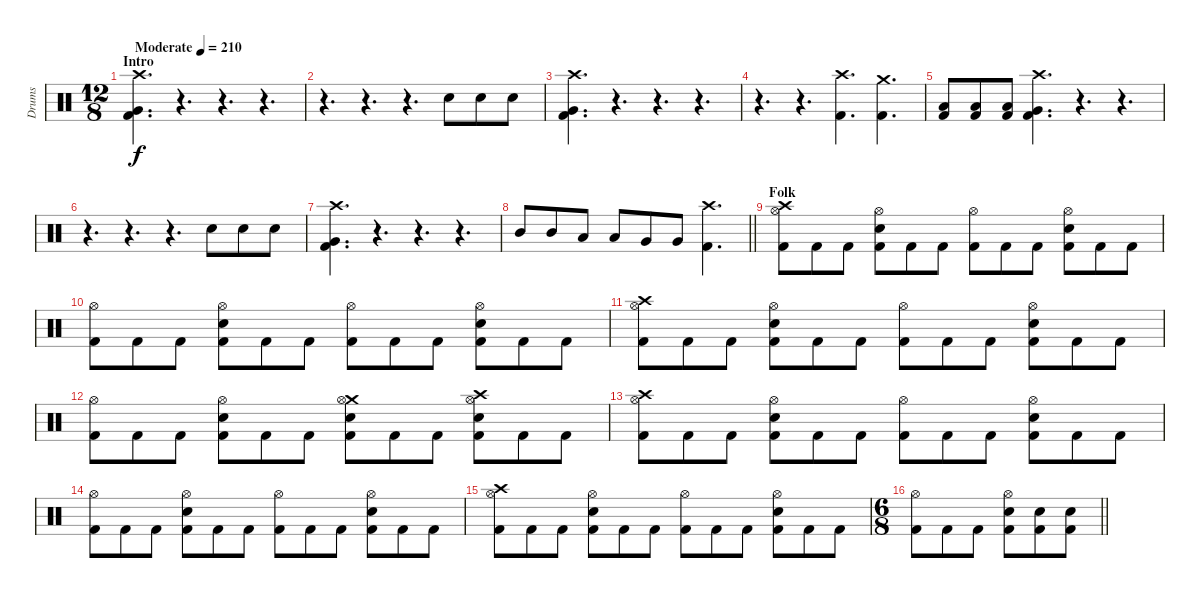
\track ("Drums" "Drums") {instrument percussion}
\staff {score}
\articulation defaults
\ts (12 8)
\section ("" "Intro")
\tempo (210 "Moderate")
\clef neutral
\ks c
("Crash high (hit)" "Very Low Tom (hit)" "Kick (hit) 2").4{d dy f} r.4{d} r.4{d} r.4{d} |
r.4{d} r.4{d} r.4{d} "Snare (hit) 2".8 "Snare (hit) 2".8 "Snare (hit) 2".8 |
("Crash high (hit)" "Very Low Tom (hit)" "Kick (hit) 2").4{d} r.4{d} r.4{d} r.4{d} |
r.4{d} r.4{d} ("Crash high (hit)" "Kick (hit) 2").4{d} ("Crash medium (hit)" "Kick (hit) 2").4{d} |
("Low Floor Tom (hit)" "Kick (hit) 2").8 ("Low Floor Tom (hit)" "Kick (hit) 2").8 ("Low Floor Tom (hit)" "Kick (hit) 2").8 ("Crash high (hit)" "Very Low Tom (hit)" "Kick (hit) 2").4{d} r.4{d} r.4{d} |
r.4{d} r.4{d} r.4{d} "Snare (hit) 2".8 "Snare (hit) 2".8 "Snare (hit) 2".8 |
("Crash high (hit)" "Very Low Tom (hit)" "Kick (hit) 2").4{d} r.4{d} r.4{d} r.4{d} |
\barLineRight lightlight "Mid Tom (hit)".8 "Mid Tom (hit)".8 "Low Tom (hit)".8 "Low Tom (hit)".8 "Very Low Tom (hit)".8 "Very Low Tom (hit)".8
("Crash high (hit)" "Kick (hit) 2").4{d} |
\section ("" "Folk")
("Crash high (hit)" "Hi-Hat (open)" "Kick (hit) 2").8 "Kick (hit) 2".8 "Kick (hit) 2".8 ("Hi-Hat (open)" "Snare (hit) 2" "Kick (hit) 2").8 "Kick (hit) 2".8 "Kick (hit) 2".8 ("Hi-Hat (open)" "Kick (hit) 2").8 "Kick (hit) 2".8 "Kick (hit) 2".8 ("Hi-Hat (open)" "Snare (hit) 2" "Kick (hit) 2").8 "Kick (hit) 2".8 "Kick (hit) 2".8 |
("Hi-Hat (open)" "Kick (hit) 2").8 "Kick (hit) 2".8 "Kick (hit) 2".8 ("Hi-Hat (open)" "Snare (hit) 2" "Kick (hit) 2").8 "Kick (hit) 2".8 "Kick (hit) 2".8 ("Hi-Hat (open)" "Kick (hit) 2").8 "Kick (hit) 2".8 "Kick (hit) 2".8 ("Hi-Hat (open)" "Snare (hit) 2" "Kick (hit) 2").8 "Kick (hit) 2".8 "Kick (hit) 2".8 |
("Crash high (hit)" "Hi-Hat (open)" "Kick (hit) 2").8 "Kick (hit) 2".8 "Kick (hit) 2".8 ("Hi-Hat (open)" "Snare (hit) 2" "Kick (hit) 2").8 "Kick (hit) 2".8 "Kick (hit) 2".8 ("Hi-Hat (open)" "Kick (hit) 2").8 "Kick (hit) 2".8 "Kick (hit) 2".8 ("Hi-Hat (open)" "Snare (hit) 2" "Kick (hit) 2").8 "Kick (hit) 2".8 "Kick (hit) 2".8 |
("Hi-Hat (open)" "Kick (hit) 2").8 "Kick (hit) 2".8 "Kick (hit) 2".8 ("Hi-Hat (open)" "Snare (hit) 2" "Kick (hit) 2").8 "Kick (hit) 2".8 "Kick (hit) 2".8 ("Crash medium (hit)" "Hi-Hat (open)" "Snare (hit) 2" "Kick (hit) 2").8 "Kick (hit) 2".8 "Kick (hit) 2".8 ("Crash high (hit)" "Hi-Hat (open)" "Snare (hit) 2" "Kick (hit) 2").8 "Kick (hit) 2".8 "Kick (hit) 2".8 |
("Crash high (hit)" "Hi-Hat (open)" "Kick (hit) 2").8 "Kick (hit) 2".8 "Kick (hit) 2".8 ("Hi-Hat (open)" "Snare (hit) 2" "Kick (hit) 2").8 "Kick (hit) 2".8 "Kick (hit) 2".8 ("Hi-Hat (open)" "Kick (hit) 2").8 "Kick (hit) 2".8 "Kick (hit) 2".8 ("Hi-Hat (open)" "Snare (hit) 2" "Kick (hit) 2").8 "Kick (hit) 2".8 "Kick (hit) 2".8 |
("Hi-Hat (open)" "Kick (hit) 2").8 "Kick (hit) 2".8 "Kick (hit) 2".8 ("Hi-Hat (open)" "Snare (hit) 2" "Kick (hit) 2").8 "Kick (hit) 2".8 "Kick (hit) 2".8 ("Hi-Hat (open)" "Kick (hit) 2").8 "Kick (hit) 2".8 "Kick (hit) 2".8 ("Hi-Hat (open)" "Snare (hit) 2" "Kick (hit) 2").8 "Kick (hit) 2".8 "Kick (hit) 2".8 |
("Crash high (hit)" "Hi-Hat (open)" "Kick (hit) 2").8 "Kick (hit) 2".8 "Kick (hit) 2".8 ("Hi-Hat (open)" "Snare (hit) 2" "Kick (hit) 2").8 "Kick (hit) 2".8 "Kick (hit) 2".8 ("Hi-Hat (open)" "Kick (hit) 2").8 "Kick (hit) 2".8 "Kick (hit) 2".8 ("Hi-Hat (open)" "Snare (hit) 2" "Kick (hit) 2").8 "Kick (hit) 2".8 "Kick (hit) 2".8 |
\ts (6 8)
\barLineRight lightlight
("Hi-Hat (open)" "Kick (hit) 2").8 "Kick (hit) 2".8 "Kick (hit) 2".8 ("Hi-Hat (open)" "Snare (hit) 2" "Kick (hit) 2").8 ("Snare (hit) 2" "Kick (hit) 2").8 ("Snare (hit) 2" "Kick (hit) 2").8
